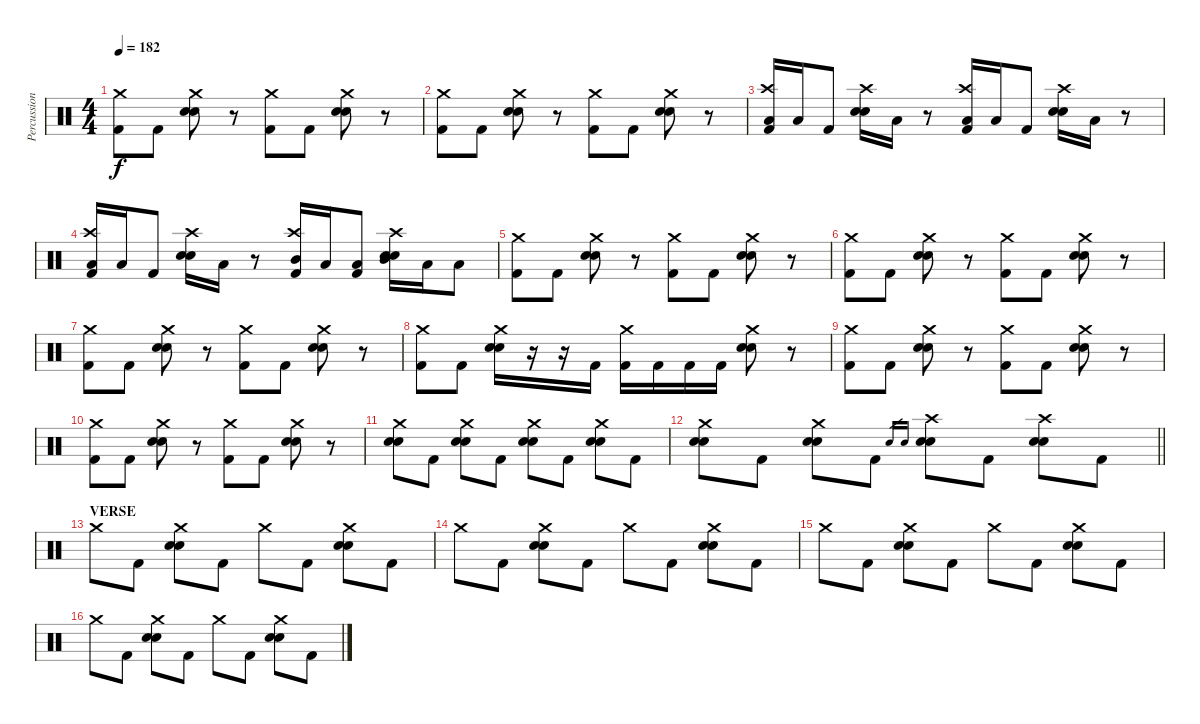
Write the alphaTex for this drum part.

\track ("Percussion" "Percussion") {instrument percussion}
\staff {score}
\articulation defaults
\ts (4 4)
\tempo 182
\clef neutral
\ks c
("Crash medium (hit)" "Kick (hit) 2").8{dy f} "Kick (hit) 2".8 ("Crash medium (hit)" "Snare (hit) 2" "Electric Snare (hit)").8 r.8 ("Crash medium (hit)" "Kick (hit) 2").8 "Kick (hit) 2".8 ("Crash medium (hit)" "Snare (hit) 2" "Electric Snare (hit)").8 r.8 |
("Crash medium (hit)" "Kick (hit) 2").8 "Kick (hit) 2".8 ("Crash medium (hit)" "Snare (hit) 2" "Electric Snare (hit)").8 r.8 ("Crash medium (hit)" "Kick (hit) 2").8 "Kick (hit) 2".8 ("Crash medium (hit)" "Snare (hit) 2" "Electric Snare (hit)").8 r.8 |
("Crash high (hit)" "Low Floor Tom (hit)" "Kick (hit) 2").16 "Low Floor Tom (hit)".16 "Kick (hit) 2".8 ("Crash high (hit)" "Snare (hit) 2" "Electric Snare (hit)").16 "Low Tom (hit)".16 r.8 ("Crash high (hit)" "Low Floor Tom (hit)" "Kick (hit) 2").16 "Low Floor Tom (hit)".16 "Kick (hit) 2".8 ("Crash high (hit)" "Snare (hit) 2" "Electric Snare (hit)").16 "Low Tom (hit)".16 r.8 |
("Crash high (hit)" "Low Floor Tom (hit)" "Kick (hit) 2").16 "Low Floor Tom (hit)".16 "Kick (hit) 2".8 ("Crash high (hit)" "Snare (hit) 2" "Electric Snare (hit)").16 "Low Tom (hit)".16 r.8 ("Crash high (hit)" "Mid Tom (hit)" "Kick (hit) 2").16 "Low Tom (hit)".16 ("Low Floor Tom (hit)" "Kick (hit) 2").8 ("Crash high (hit)" "Snare (hit) 2" "Electric Snare (hit)" "Mid Tom (hit)").16 "Low Tom (hit)".16 "Low Floor Tom (hit)".8 |
("Crash medium (hit)" "Kick (hit) 2").8 "Kick (hit) 2".8 ("Crash medium (hit)" "Snare (hit) 2" "Electric Snare (hit)").8 r.8 ("Crash medium (hit)" "Kick (hit) 2").8 "Kick (hit) 2".8 ("Crash medium (hit)" "Snare (hit) 2" "Electric Snare (hit)").8 r.8 |
("Crash medium (hit)" "Kick (hit) 2").8 "Kick (hit) 2".8 ("Crash medium (hit)" "Snare (hit) 2" "Electric Snare (hit)").8 r.8 ("Crash medium (hit)" "Kick (hit) 2").8 "Kick (hit) 2".8 ("Crash medium (hit)" "Snare (hit) 2" "Electric Snare (hit)").8 r.8 |
("Crash medium (hit)" "Kick (hit) 2").8 "Kick (hit) 2".8 ("Crash medium (hit)" "Snare (hit) 2" "Electric Snare (hit)").8 r.8 ("Crash medium (hit)" "Kick (hit) 2").8 "Kick (hit) 2".8 ("Crash medium (hit)" "Snare (hit) 2" "Electric Snare (hit)").8 r.8 |
("Crash medium (hit)" "Kick (hit) 2").8 "Kick (hit) 2".8 ("Crash medium (hit)" "Snare (hit) 2" "Electric Snare (hit)").16 r.16 r.16 "Kick (hit) 2".16 ("Crash medium (hit)" "Kick (hit) 2").16 "Kick (hit) 2".16 "Kick (hit) 2".16 "Kick (hit) 2".16 ("Crash medium (hit)" "Snare (hit) 2" "Electric Snare (hit)").8 r.8 |
("Crash medium (hit)" "Kick (hit) 2").8 "Kick (hit) 2".8 ("Crash medium (hit)" "Snare (hit) 2" "Electric Snare (hit)").8 r.8 ("Crash medium (hit)" "Kick (hit) 2").8 "Kick (hit) 2".8 ("Crash medium (hit)" "Snare (hit) 2" "Electric Snare (hit)").8 r.8 |
("Crash medium (hit)" "Kick (hit) 2").8 "Kick (hit) 2".8 ("Crash medium (hit)" "Snare (hit) 2" "Electric Snare (hit)").8 r.8 ("Crash medium (hit)" "Kick (hit) 2").8 "Kick (hit) 2".8 ("Crash medium (hit)" "Snare (hit) 2" "Electric Snare (hit)").8 r.8 |
("Crash medium (hit)" "Snare (hit) 2" "Electric Snare (hit)").8 "Kick (hit) 2".8 ("Crash medium (hit)" "Snare (hit) 2" "Electric Snare (hit)").8 "Kick (hit) 2".8 ("Crash medium (hit)" "Snare (hit) 2" "Electric Snare (hit)").8 "Kick (hit) 2".8 ("Crash medium (hit)" "Snare (hit) 2" "Electric Snare (hit)").8 "Kick (hit) 2".8 |
\barLineRight lightlight
("Crash medium (hit)" "Snare (hit) 2" "Electric Snare (hit)").8 "Kick (hit) 2".8 ("Crash medium (hit)" "Snare (hit) 2" "Electric Snare (hit)").8 "Kick (hit) 2".8 "Snare (hit) 2".16{gr} "Electric Snare (hit)".16{gr} ("Crash high (hit)" "Snare (hit) 2" "Electric Snare (hit)").8 "Kick (hit) 2".8 ("Crash high (hit)" "Snare (hit) 2" "Electric Snare (hit)").8 "Kick (hit) 2".8 |
\section ("" "VERSE")
"Crash medium (hit)".8 "Kick (hit) 2".8 ("Crash medium (hit)" "Snare (hit) 2" "Electric Snare (hit)").8 "Kick (hit) 2".8 "Crash medium (hit)".8 "Kick (hit) 2".8 ("Crash medium (hit)" "Snare (hit) 2" "Electric Snare (hit)").8 "Kick (hit) 2".8 |
"Crash medium (hit)".8 "Kick (hit) 2".8 ("Crash medium (hit)" "Snare (hit) 2" "Electric Snare (hit)").8 "Kick (hit) 2".8 "Crash medium (hit)".8 "Kick (hit) 2".8 ("Crash medium (hit)" "Snare (hit) 2" "Electric Snare (hit)").8 "Kick (hit) 2".8 |
"Crash medium (hit)".8 "Kick (hit) 2".8 ("Crash medium (hit)" "Snare (hit) 2" "Electric Snare (hit)").8 "Kick (hit) 2".8 "Crash medium (hit)".8 "Kick (hit) 2".8 ("Crash medium (hit)" "Snare (hit) 2" "Electric Snare (hit)").8 "Kick (hit) 2".8 |
"Crash medium (hit)".8 "Kick (hit) 2".8 ("Crash medium (hit)" "Snare (hit) 2" "Electric Snare (hit)").8 "Kick (hit) 2".8 "Crash medium (hit)".8 "Kick (hit) 2".8 ("Crash medium (hit)" "Snare (hit) 2" "Electric Snare (hit)").8 "Kick (hit) 2".8
